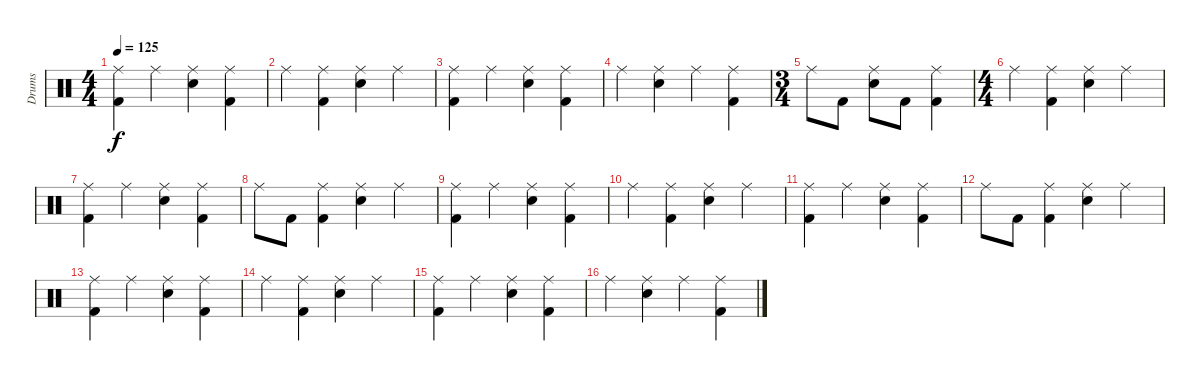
\track ("Drums" "Drums") {instrument percussion}
\staff {score}
\articulation defaults
\ts (4 4)
\tempo 125
\clef neutral
\ks c
("Ride (middle)" "Kick (hit) 2").4{dy f} "Ride (middle)".4 ("Ride (middle)" "Electric Snare (hit)").4 ("Ride (middle)" "Kick (hit) 2").4 |
"Ride (middle)".4 ("Ride (middle)" "Kick (hit) 2").4 ("Ride (middle)" "Electric Snare (hit)").4 "Ride (middle)".4 |
("Ride (middle)" "Kick (hit) 2").4 "Ride (middle)".4 ("Ride (middle)" "Electric Snare (hit)").4 ("Ride (middle)" "Kick (hit) 2").4 |
"Ride (middle)".4 ("Ride (middle)" "Electric Snare (hit)").4 "Ride (middle)".4 ("Ride (middle)" "Kick (hit) 2").4 |
\ts (3 4)
"Ride (middle)".8 "Kick (hit) 2".8 ("Ride (middle)" "Electric Snare (hit)").8 "Kick (hit) 2".8 ("Ride (middle)" "Kick (hit) 2").4 |
\ts (4 4)
"Ride (middle)".4 ("Ride (middle)" "Kick (hit) 2").4 ("Ride (middle)" "Electric Snare (hit)").4 "Ride (middle)".4 |
("Ride (middle)" "Kick (hit) 2").4 "Ride (middle)".4 ("Ride (middle)" "Electric Snare (hit)").4 ("Ride (middle)" "Kick (hit) 2").4 |
"Ride (middle)".8 "Kick (hit) 2".8 ("Ride (middle)" "Kick (hit) 2").4 ("Ride (middle)" "Electric Snare (hit)").4 "Ride (middle)".4 |
("Ride (middle)" "Kick (hit) 2").4 "Ride (middle)".4 ("Ride (middle)" "Electric Snare (hit)").4 ("Ride (middle)" "Kick (hit) 2").4 |
"Ride (middle)".4 ("Ride (middle)" "Kick (hit) 2").4 ("Ride (middle)" "Electric Snare (hit)").4 "Ride (middle)".4 |
("Ride (middle)" "Kick (hit) 2").4 "Ride (middle)".4 ("Ride (middle)" "Electric Snare (hit)").4 ("Ride (middle)" "Kick (hit) 2").4 |
"Ride (middle)".8 "Kick (hit) 2".8 ("Ride (middle)" "Kick (hit) 2").4 ("Ride (middle)" "Electric Snare (hit)").4 "Ride (middle)".4 |
("Ride (middle)" "Kick (hit) 2").4 "Ride (middle)".4 ("Ride (middle)" "Electric Snare (hit)").4 ("Ride (middle)" "Kick (hit) 2").4 |
"Ride (middle)".4 ("Ride (middle)" "Kick (hit) 2").4 ("Ride (middle)" "Electric Snare (hit)").4 "Ride (middle)".4 |
("Ride (middle)" "Kick (hit) 2").4 "Ride (middle)".4 ("Ride (middle)" "Electric Snare (hit)").4 ("Ride (middle)" "Kick (hit) 2").4 |
"Ride (middle)".4 ("Ride (middle)" "Electric Snare (hit)").4 "Ride (middle)".4 ("Ride (middle)" "Kick (hit) 2").4
